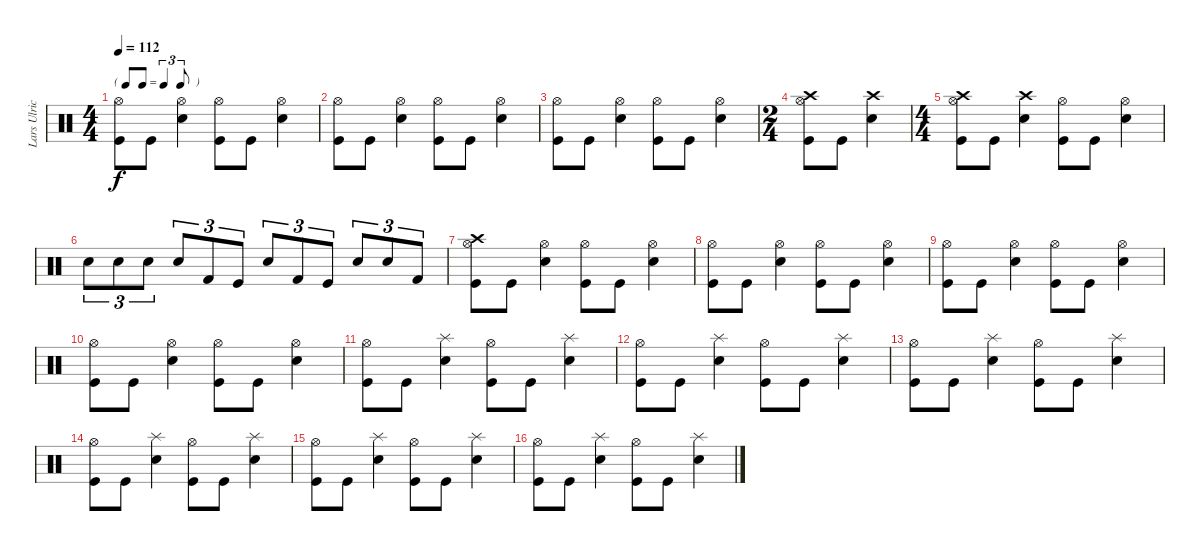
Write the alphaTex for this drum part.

\track ("Lars Ulrich (Drums)" "Lars Ulric") {instrument percussion}
\staff {score}
\articulation defaults
\ts (4 4)
\tf triplet8th
\tempo 112
\clef neutral
\ks c
("Hi-Hat (open)" "Kick (hit)").8{dy f} "Kick (hit)".8 ("Hi-Hat (open)" "Electric Snare (hit)").4 ("Hi-Hat (open)" "Kick (hit)").8 "Kick (hit)".8 ("Hi-Hat (open)" "Electric Snare (hit)").4 |
("Hi-Hat (open)" "Kick (hit)").8 "Kick (hit)".8 ("Hi-Hat (open)" "Electric Snare (hit)").4 ("Hi-Hat (open)" "Kick (hit)").8 "Kick (hit)".8 ("Hi-Hat (open)" "Electric Snare (hit)").4 |
("Hi-Hat (open)" "Kick (hit)").8 "Kick (hit)".8 ("Hi-Hat (open)" "Electric Snare (hit)").4 ("Hi-Hat (open)" "Kick (hit)").8 "Kick (hit)".8 ("Hi-Hat (open)" "Electric Snare (hit)").4 |
\ts (2 4)
("Hi-Hat (open)" "Crash high (hit)" "Kick (hit)").8 "Kick (hit)".8 ("Crash high (hit)" "Electric Snare (hit)").4 |
\ts (4 4)
("Hi-Hat (open)" "Crash high (hit)" "Kick (hit)").8 "Kick (hit)".8 ("Crash high (hit)" "Electric Snare (hit)").4 ("Hi-Hat (open)" "Kick (hit)").8 "Kick (hit)".8 ("Hi-Hat (open)" "Electric Snare (hit)").4 |
"Electric Snare (hit)".8{tu (3 2)} "Electric Snare (hit)".8{tu (3 2)} "Electric Snare (hit)".8{tu (3 2)} "Snare (hit) 2".8{tu (3 2)} "Kick (hit) 2".8{tu (3 2)} "Kick (hit)".8{tu (3 2)} "Electric Snare (hit)".8{tu (3 2)} "Kick (hit) 2".8{tu (3 2)} "Kick (hit)".8{tu (3 2)} "Electric Snare (hit)".8{tu (3 2)} "Snare (hit) 2".8{tu (3 2)} "Kick (hit) 2".8{tu (3 2)} |
("Hi-Hat (open)" "Crash high (hit)" "Kick (hit)").8 "Kick (hit)".8 ("Hi-Hat (open)" "Electric Snare (hit)").4 ("Hi-Hat (open)" "Kick (hit)").8 "Kick (hit)".8 ("Hi-Hat (open)" "Electric Snare (hit)").4 |
("Hi-Hat (open)" "Kick (hit)").8 "Kick (hit)".8 ("Hi-Hat (open)" "Electric Snare (hit)").4 ("Hi-Hat (open)" "Kick (hit)").8 "Kick (hit)".8 ("Hi-Hat (open)" "Electric Snare (hit)").4 |
("Hi-Hat (open)" "Kick (hit)").8 "Kick (hit)".8 ("Hi-Hat (open)" "Electric Snare (hit)").4 ("Hi-Hat (open)" "Kick (hit)").8 "Kick (hit)".8 ("Hi-Hat (open)" "Electric Snare (hit)").4 |
("Hi-Hat (open)" "Kick (hit)").8 "Kick (hit)".8 ("Hi-Hat (open)" "Electric Snare (hit)").4 ("Hi-Hat (open)" "Kick (hit)").8 "Kick (hit)".8 ("Hi-Hat (open)" "Electric Snare (hit)").4 |
("Hi-Hat (open)" "Kick (hit)").8 "Kick (hit)".8 ("Splash (hit)" "Electric Snare (hit)").4 ("Hi-Hat (open)" "Kick (hit)").8 "Kick (hit)".8 ("Splash (hit)" "Electric Snare (hit)").4 |
("Hi-Hat (open)" "Kick (hit)").8 "Kick (hit)".8 ("Splash (hit)" "Electric Snare (hit)").4 ("Hi-Hat (open)" "Kick (hit)").8 "Kick (hit)".8 ("Splash (hit)" "Electric Snare (hit)").4 |
("Hi-Hat (open)" "Kick (hit)").8 "Kick (hit)".8 ("Splash (hit)" "Electric Snare (hit)").4 ("Hi-Hat (open)" "Kick (hit)").8 "Kick (hit)".8 ("Splash (hit)" "Electric Snare (hit)").4 |
("Hi-Hat (open)" "Kick (hit)").8 "Kick (hit)".8 ("Splash (hit)" "Electric Snare (hit)").4 ("Hi-Hat (open)" "Kick (hit)").8 "Kick (hit)".8 ("Splash (hit)" "Electric Snare (hit)").4 |
("Hi-Hat (open)" "Kick (hit)").8 "Kick (hit)".8 ("Splash (hit)" "Electric Snare (hit)").4 ("Hi-Hat (open)" "Kick (hit)").8 "Kick (hit)".8 ("Splash (hit)" "Electric Snare (hit)").4 |
("Hi-Hat (open)" "Kick (hit)").8 "Kick (hit)".8 ("Splash (hit)" "Electric Snare (hit)").4 ("Hi-Hat (open)" "Kick (hit)").8 "Kick (hit)".8 ("Splash (hit)" "Electric Snare (hit)").4
